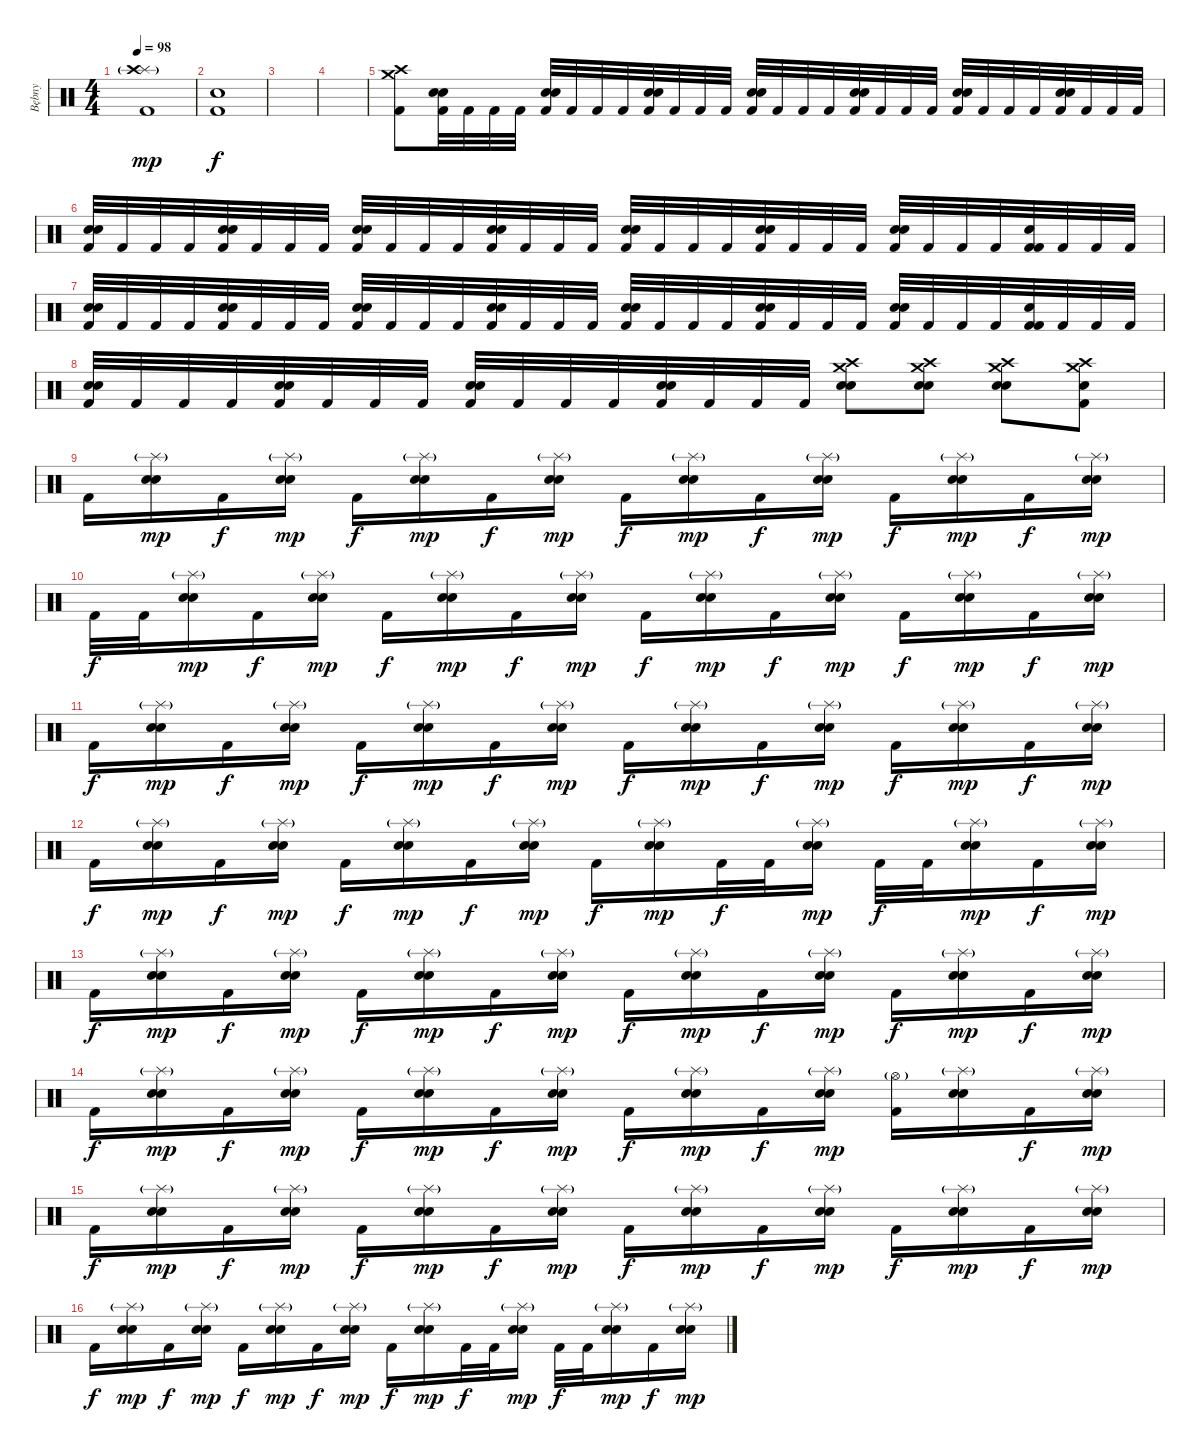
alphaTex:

\track ("Bębny" "Bębny") {instrument percussion}
\staff {score}
\articulation defaults
\ts (4 4)
\tempo 98
\clef neutral
\ks c
("Splash (hit)" "Crash high (hit)"{g} "Kick (hit) 2").1{dy mp} |
("Electric Snare (hit)" "Kick (hit) 2").1{dy f} |
|
|
("Crash high (hit)" "Crash medium (hit)" "Kick (hit) 2").8 ("Electric Snare (hit)" "Snare (hit) 2" "Kick (hit) 2").32 "Kick (hit) 2".32 "Kick (hit) 2".32 "Kick (hit) 2".32 ("Electric Snare (hit)" "Snare (hit) 2" "Kick (hit) 2").32 "Kick (hit) 2".32 "Kick (hit) 2".32 "Kick (hit) 2".32 ("Electric Snare (hit)" "Snare (hit) 2" "Kick (hit) 2").32 "Kick (hit) 2".32 "Kick (hit) 2".32 "Kick (hit) 2".32 ("Electric Snare (hit)" "Snare (hit) 2" "Kick (hit) 2").32 "Kick (hit) 2".32 "Kick (hit) 2".32 "Kick (hit) 2".32 ("Electric Snare (hit)" "Snare (hit) 2" "Kick (hit) 2").32 "Kick (hit) 2".32 "Kick (hit) 2".32 "Kick (hit) 2".32 ("Electric Snare (hit)" "Snare (hit) 2" "Kick (hit) 2").32 "Kick (hit) 2".32 "Kick (hit) 2".32 "Kick (hit) 2".32 ("Electric Snare (hit)" "Snare (hit) 2" "Kick (hit) 2").32 "Kick (hit) 2".32 "Kick (hit) 2".32 "Kick (hit) 2".32 |
("Electric Snare (hit)" "Snare (hit) 2" "Kick (hit) 2").32 "Kick (hit) 2".32 "Kick (hit) 2".32 "Kick (hit) 2".32 ("Electric Snare (hit)" "Snare (hit) 2" "Kick (hit) 2").32 "Kick (hit) 2".32 "Kick (hit) 2".32 "Kick (hit) 2".32 ("Electric Snare (hit)" "Snare (hit) 2" "Kick (hit) 2").32 "Kick (hit) 2".32 "Kick (hit) 2".32 "Kick (hit) 2".32 ("Electric Snare (hit)" "Snare (hit) 2" "Kick (hit) 2").32 "Kick (hit) 2".32 "Kick (hit) 2".32 "Kick (hit) 2".32 ("Electric Snare (hit)" "Snare (hit) 2" "Kick (hit) 2").32 "Kick (hit) 2".32 "Kick (hit) 2".32 "Kick (hit) 2".32 ("Electric Snare (hit)" "Snare (hit) 2" "Kick (hit) 2").32 "Kick (hit) 2".32 "Kick (hit) 2".32 "Kick (hit) 2".32 ("Electric Snare (hit)" "Snare (hit) 2" "Kick (hit) 2").32 "Kick (hit) 2".32 "Kick (hit) 2".32 "Kick (hit) 2".32 ("Electric Snare (hit)" "Kick (hit) 2" "Kick (hit) 2").32 "Kick (hit) 2".32 "Kick (hit) 2".32 "Kick (hit) 2".32 |
("Electric Snare (hit)" "Snare (hit) 2" "Kick (hit) 2").32 "Kick (hit) 2".32 "Kick (hit) 2".32 "Kick (hit) 2".32 ("Electric Snare (hit)" "Snare (hit) 2" "Kick (hit) 2").32 "Kick (hit) 2".32 "Kick (hit) 2".32 "Kick (hit) 2".32 ("Electric Snare (hit)" "Snare (hit) 2" "Kick (hit) 2").32 "Kick (hit) 2".32 "Kick (hit) 2".32 "Kick (hit) 2".32 ("Electric Snare (hit)" "Snare (hit) 2" "Kick (hit) 2").32 "Kick (hit) 2".32 "Kick (hit) 2".32 "Kick (hit) 2".32 ("Electric Snare (hit)" "Snare (hit) 2" "Kick (hit) 2").32 "Kick (hit) 2".32 "Kick (hit) 2".32 "Kick (hit) 2".32 ("Electric Snare (hit)" "Snare (hit) 2" "Kick (hit) 2").32 "Kick (hit) 2".32 "Kick (hit) 2".32 "Kick (hit) 2".32 ("Electric Snare (hit)" "Snare (hit) 2" "Kick (hit) 2").32 "Kick (hit) 2".32 "Kick (hit) 2".32 "Kick (hit) 2".32 ("Electric Snare (hit)" "Kick (hit) 2" "Kick (hit) 2").32 "Kick (hit) 2".32 "Kick (hit) 2".32 "Kick (hit) 2".32 |
("Electric Snare (hit)" "Snare (hit) 2" "Kick (hit) 2").32 "Kick (hit) 2".32 "Kick (hit) 2".32 "Kick (hit) 2".32 ("Electric Snare (hit)" "Snare (hit) 2" "Kick (hit) 2").32 "Kick (hit) 2".32 "Kick (hit) 2".32 "Kick (hit) 2".32 ("Electric Snare (hit)" "Snare (hit) 2" "Kick (hit) 2").32 "Kick (hit) 2".32 "Kick (hit) 2".32 "Kick (hit) 2".32 ("Electric Snare (hit)" "Snare (hit) 2" "Kick (hit) 2").32 "Kick (hit) 2".32 "Kick (hit) 2".32 "Kick (hit) 2".32 ("Crash high (hit)" "Crash medium (hit)" "Electric Snare (hit)" "Snare (hit) 2").8 ("Crash high (hit)" "Crash medium (hit)" "Electric Snare (hit)" "Snare (hit) 2").8 ("Crash high (hit)" "Crash medium (hit)" "Electric Snare (hit)" "Snare (hit) 2").8 ("Crash high (hit)" "Crash medium (hit)" "Electric Snare (hit)" "Kick (hit) 2").8 |
"Kick (hit) 2".16 ("Splash (hit)"{g} "Snare (hit) 2" "Electric Snare (hit)").16{dy mp} "Kick (hit) 2".16{dy f} ("Splash (hit)"{g} "Snare (hit) 2" "Electric Snare (hit)").16{dy mp} "Kick (hit) 2".16{dy f} ("Splash (hit)"{g} "Snare (hit) 2" "Electric Snare (hit)").16{dy mp} "Kick (hit) 2".16{dy f} ("Splash (hit)"{g} "Snare (hit) 2" "Electric Snare (hit)").16{dy mp} "Kick (hit) 2".16{dy f} ("Splash (hit)"{g} "Snare (hit) 2" "Electric Snare (hit)").16{dy mp} "Kick (hit) 2".16{dy f} ("Splash (hit)"{g} "Snare (hit) 2" "Electric Snare (hit)").16{dy mp} "Kick (hit) 2".16{dy f} ("Splash (hit)"{g} "Snare (hit) 2" "Electric Snare (hit)").16{dy mp} "Kick (hit) 2".16{dy f} ("Splash (hit)"{g} "Snare (hit) 2" "Electric Snare (hit)").16{dy mp} |
"Kick (hit) 2".32{dy f} "Kick (hit) 2".32 ("Splash (hit)"{g} "Snare (hit) 2" "Electric Snare (hit)").16{dy mp} "Kick (hit) 2".16{dy f} ("Splash (hit)"{g} "Snare (hit) 2" "Electric Snare (hit)").16{dy mp} "Kick (hit) 2".16{dy f} ("Splash (hit)"{g} "Snare (hit) 2" "Electric Snare (hit)").16{dy mp} "Kick (hit) 2".16{dy f} ("Splash (hit)"{g} "Snare (hit) 2" "Electric Snare (hit)").16{dy mp} "Kick (hit) 2".16{dy f} ("Splash (hit)"{g} "Snare (hit) 2" "Electric Snare (hit)").16{dy mp} "Kick (hit) 2".16{dy f} ("Splash (hit)"{g} "Snare (hit) 2" "Electric Snare (hit)").16{dy mp} "Kick (hit) 2".16{dy f} ("Splash (hit)"{g} "Snare (hit) 2" "Electric Snare (hit)").16{dy mp} "Kick (hit) 2".16{dy f} ("Splash (hit)"{g} "Snare (hit) 2" "Electric Snare (hit)").16{dy mp} |
"Kick (hit) 2".16{dy f} ("Splash (hit)"{g} "Snare (hit) 2" "Electric Snare (hit)").16{dy mp} "Kick (hit) 2".16{dy f} ("Splash (hit)"{g} "Snare (hit) 2" "Electric Snare (hit)").16{dy mp} "Kick (hit) 2".16{dy f} ("Splash (hit)"{g} "Snare (hit) 2" "Electric Snare (hit)").16{dy mp} "Kick (hit) 2".16{dy f} ("Splash (hit)"{g} "Snare (hit) 2" "Electric Snare (hit)").16{dy mp} "Kick (hit) 2".16{dy f} ("Splash (hit)"{g} "Snare (hit) 2" "Electric Snare (hit)").16{dy mp} "Kick (hit) 2".16{dy f} ("Splash (hit)"{g} "Snare (hit) 2" "Electric Snare (hit)").16{dy mp} "Kick (hit) 2".16{dy f} ("Splash (hit)"{g} "Snare (hit) 2" "Electric Snare (hit)").16{dy mp} "Kick (hit) 2".16{dy f} ("Splash (hit)"{g} "Snare (hit) 2" "Electric Snare (hit)").16{dy mp} |
"Kick (hit) 2".16{dy f} ("Splash (hit)"{g} "Snare (hit) 2" "Electric Snare (hit)").16{dy mp} "Kick (hit) 2".16{dy f} ("Splash (hit)"{g} "Snare (hit) 2" "Electric Snare (hit)").16{dy mp} "Kick (hit) 2".16{dy f} ("Splash (hit)"{g} "Snare (hit) 2" "Electric Snare (hit)").16{dy mp} "Kick (hit) 2".16{dy f} ("Splash (hit)"{g} "Snare (hit) 2" "Electric Snare (hit)").16{dy mp} "Kick (hit) 2".16{dy f} ("Splash (hit)"{g} "Snare (hit) 2" "Electric Snare (hit)").16{dy mp} "Kick (hit) 2".32{dy f} "Kick (hit) 2".32 ("Splash (hit)"{g} "Snare (hit) 2" "Electric Snare (hit)").16{dy mp} "Kick (hit) 2".32{dy f} "Kick (hit) 2".32 ("Splash (hit)"{g} "Snare (hit) 2" "Electric Snare (hit)").16{dy mp} "Kick (hit) 2".16{dy f} ("Splash (hit)"{g} "Snare (hit) 2" "Electric Snare (hit)").16{dy mp} |
"Kick (hit) 2".16{dy f} ("Splash (hit)"{g} "Snare (hit) 2" "Electric Snare (hit)").16{dy mp} "Kick (hit) 2".16{dy f} ("Splash (hit)"{g} "Snare (hit) 2" "Electric Snare (hit)").16{dy mp} "Kick (hit) 2".16{dy f} ("Splash (hit)"{g} "Snare (hit) 2" "Electric Snare (hit)").16{dy mp} "Kick (hit) 2".16{dy f} ("Splash (hit)"{g} "Snare (hit) 2" "Electric Snare (hit)").16{dy mp} "Kick (hit) 2".16{dy f} ("Splash (hit)"{g} "Snare (hit) 2" "Electric Snare (hit)").16{dy mp} "Kick (hit) 2".16{dy f} ("Splash (hit)"{g} "Snare (hit) 2" "Electric Snare (hit)").16{dy mp} "Kick (hit) 2".16{dy f} ("Splash (hit)"{g} "Snare (hit) 2" "Electric Snare (hit)").16{dy mp} "Kick (hit) 2".16{dy f} ("Splash (hit)"{g} "Snare (hit) 2" "Electric Snare (hit)").16{dy mp} |
"Kick (hit) 2".16{dy f} ("Splash (hit)"{g} "Snare (hit) 2" "Electric Snare (hit)").16{dy mp} "Kick (hit) 2".16{dy f} ("Splash (hit)"{g} "Snare (hit) 2" "Electric Snare (hit)").16{dy mp} "Kick (hit) 2".16{dy f} ("Splash (hit)"{g} "Snare (hit) 2" "Electric Snare (hit)").16{dy mp} "Kick (hit) 2".16{dy f} ("Splash (hit)"{g} "Snare (hit) 2" "Electric Snare (hit)").16{dy mp} "Kick (hit) 2".16{dy f} ("Splash (hit)"{g} "Snare (hit) 2" "Electric Snare (hit)").16{dy mp} "Kick (hit) 2".16{dy f} ("Splash (hit)"{g} "Snare (hit) 2" "Electric Snare (hit)").16{dy mp} ("Hi-Hat (open)"{g} "Kick (hit) 2").16 ("Splash (hit)"{g} "Snare (hit) 2" "Electric Snare (hit)").16 "Kick (hit) 2".16{dy f} ("Splash (hit)"{g} "Snare (hit) 2" "Electric Snare (hit)").16{dy mp} |
"Kick (hit) 2".16{dy f} ("Splash (hit)"{g} "Snare (hit) 2" "Electric Snare (hit)").16{dy mp} "Kick (hit) 2".16{dy f} ("Splash (hit)"{g} "Snare (hit) 2" "Electric Snare (hit)").16{dy mp} "Kick (hit) 2".16{dy f} ("Splash (hit)"{g} "Snare (hit) 2" "Electric Snare (hit)").16{dy mp} "Kick (hit) 2".16{dy f} ("Splash (hit)"{g} "Snare (hit) 2" "Electric Snare (hit)").16{dy mp} "Kick (hit) 2".16{dy f} ("Splash (hit)"{g} "Snare (hit) 2" "Electric Snare (hit)").16{dy mp} "Kick (hit) 2".16{dy f} ("Splash (hit)"{g} "Snare (hit) 2" "Electric Snare (hit)").16{dy mp} "Kick (hit) 2".16{dy f} ("Splash (hit)"{g} "Snare (hit) 2" "Electric Snare (hit)").16{dy mp} "Kick (hit) 2".16{dy f} ("Splash (hit)"{g} "Snare (hit) 2" "Electric Snare (hit)").16{dy mp} |
"Kick (hit) 2".16{dy f} ("Splash (hit)"{g} "Snare (hit) 2" "Electric Snare (hit)").16{dy mp} "Kick (hit) 2".16{dy f} ("Splash (hit)"{g} "Snare (hit) 2" "Electric Snare (hit)").16{dy mp} "Kick (hit) 2".16{dy f} ("Splash (hit)"{g} "Snare (hit) 2" "Electric Snare (hit)").16{dy mp} "Kick (hit) 2".16{dy f} ("Splash (hit)"{g} "Snare (hit) 2" "Electric Snare (hit)").16{dy mp} "Kick (hit) 2".16{dy f} ("Splash (hit)"{g} "Snare (hit) 2" "Electric Snare (hit)").16{dy mp} "Kick (hit) 2".32{dy f} "Kick (hit) 2".32 ("Splash (hit)"{g} "Snare (hit) 2" "Electric Snare (hit)").16{dy mp} "Kick (hit) 2".32{dy f} "Kick (hit) 2".32 ("Splash (hit)"{g} "Snare (hit) 2" "Electric Snare (hit)").16{dy mp} "Kick (hit) 2".16{dy f} ("Splash (hit)"{g} "Snare (hit) 2" "Electric Snare (hit)").16{dy mp}
